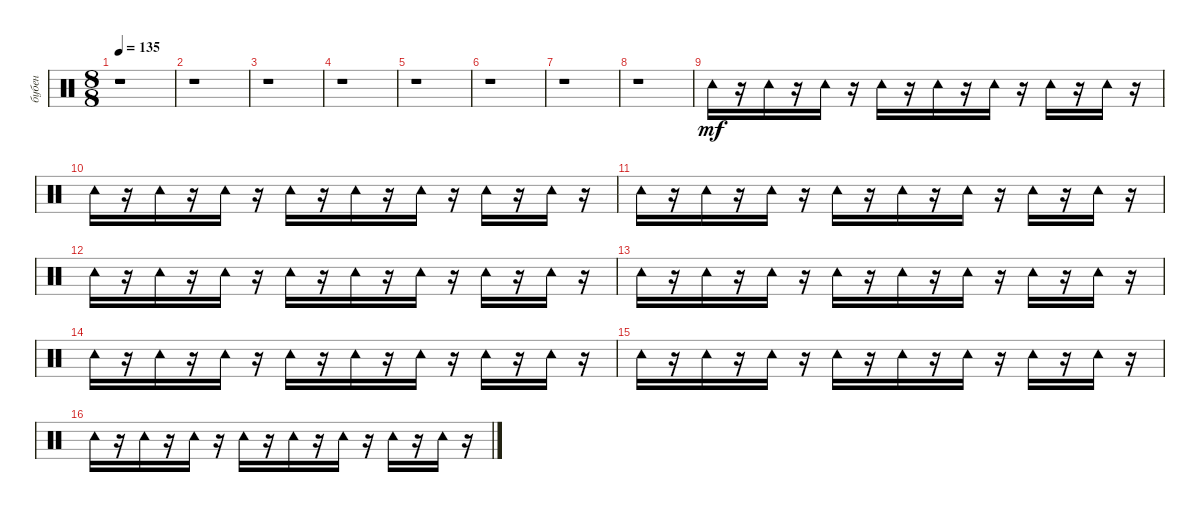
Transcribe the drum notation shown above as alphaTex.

\track ("бубен" "бубен") {instrument percussion}
\staff {score}
\articulation defaults
\ts (8 8)
\tempo 135
\clef neutral
\ks c
r.1{dy mf} |
r.1 |
r.1 |
r.1 |
r.1 |
r.1 |
r.1 |
r.1 |
"Tambourine (hit)".16 r.16 "Tambourine (hit)".16 r.16 "Tambourine (hit)".16 r.16 "Tambourine (hit)".16 r.16 "Tambourine (hit)".16 r.16 "Tambourine (hit)".16 r.16 "Tambourine (hit)".16 r.16 "Tambourine (hit)".16 r.16 |
"Tambourine (hit)".16 r.16 "Tambourine (hit)".16 r.16 "Tambourine (hit)".16 r.16 "Tambourine (hit)".16 r.16 "Tambourine (hit)".16 r.16 "Tambourine (hit)".16 r.16 "Tambourine (hit)".16 r.16 "Tambourine (hit)".16 r.16 |
"Tambourine (hit)".16 r.16 "Tambourine (hit)".16 r.16 "Tambourine (hit)".16 r.16 "Tambourine (hit)".16 r.16 "Tambourine (hit)".16 r.16 "Tambourine (hit)".16 r.16 "Tambourine (hit)".16 r.16 "Tambourine (hit)".16 r.16 |
"Tambourine (hit)".16 r.16 "Tambourine (hit)".16 r.16 "Tambourine (hit)".16 r.16 "Tambourine (hit)".16 r.16 "Tambourine (hit)".16 r.16 "Tambourine (hit)".16 r.16 "Tambourine (hit)".16 r.16 "Tambourine (hit)".16 r.16 |
"Tambourine (hit)".16 r.16 "Tambourine (hit)".16 r.16 "Tambourine (hit)".16 r.16 "Tambourine (hit)".16 r.16 "Tambourine (hit)".16 r.16 "Tambourine (hit)".16 r.16 "Tambourine (hit)".16 r.16 "Tambourine (hit)".16 r.16 |
"Tambourine (hit)".16 r.16 "Tambourine (hit)".16 r.16 "Tambourine (hit)".16 r.16 "Tambourine (hit)".16 r.16 "Tambourine (hit)".16 r.16 "Tambourine (hit)".16 r.16 "Tambourine (hit)".16 r.16 "Tambourine (hit)".16 r.16 |
"Tambourine (hit)".16 r.16 "Tambourine (hit)".16 r.16 "Tambourine (hit)".16 r.16 "Tambourine (hit)".16 r.16 "Tambourine (hit)".16 r.16 "Tambourine (hit)".16 r.16 "Tambourine (hit)".16 r.16 "Tambourine (hit)".16 r.16 |
"Tambourine (hit)".16 r.16 "Tambourine (hit)".16 r.16 "Tambourine (hit)".16 r.16 "Tambourine (hit)".16 r.16 "Tambourine (hit)".16 r.16 "Tambourine (hit)".16 r.16 "Tambourine (hit)".16 r.16 "Tambourine (hit)".16 r.16
